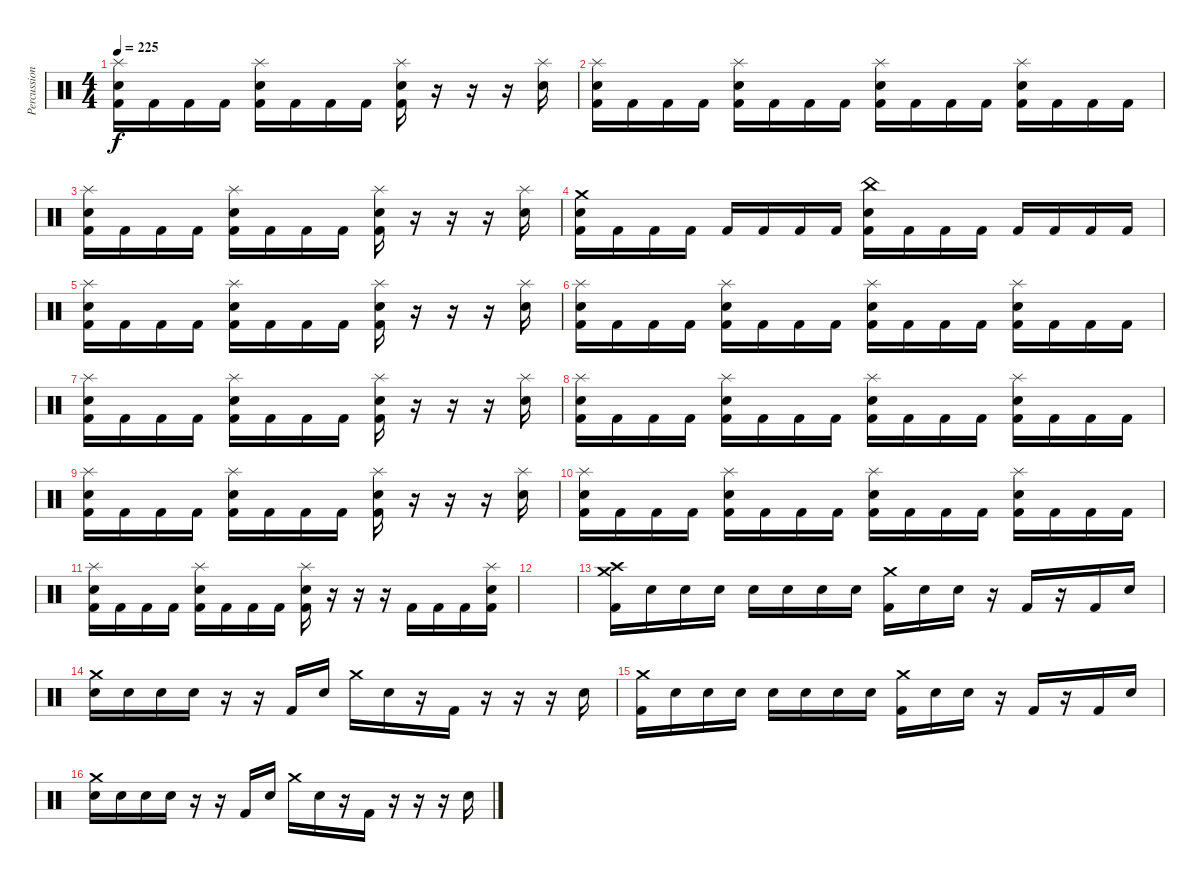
\track ("Percussion" "Percussion") {instrument percussion}
\staff {score}
\articulation defaults
\ts (4 4)
\tempo 225
\clef neutral
\ks c
("Splash (hit)" "Snare (hit) 2" "Kick (hit) 2").16{dy f} "Kick (hit) 2".16 "Kick (hit) 2".16 "Kick (hit) 2".16 ("Splash (hit)" "Snare (hit) 2" "Kick (hit) 2").16 "Kick (hit) 2".16 "Kick (hit) 2".16 "Kick (hit) 2".16 ("Splash (hit)" "Snare (hit) 2" "Kick (hit) 2").16 r.16 r.16 r.16 ("Splash (hit)" "Snare (hit) 2").16 |
("Splash (hit)" "Snare (hit) 2" "Kick (hit) 2").16 "Kick (hit) 2".16 "Kick (hit) 2".16 "Kick (hit) 2".16 ("Splash (hit)" "Snare (hit) 2" "Kick (hit) 2").16 "Kick (hit) 2".16 "Kick (hit) 2".16 "Kick (hit) 2".16 ("Splash (hit)" "Snare (hit) 2" "Kick (hit) 2").16 "Kick (hit) 2".16 "Kick (hit) 2".16 "Kick (hit) 2".16 ("Splash (hit)" "Snare (hit) 2" "Kick (hit) 2").16 "Kick (hit) 2".16 "Kick (hit) 2".16 "Kick (hit) 2".16 |
("Splash (hit)" "Snare (hit) 2" "Kick (hit) 2").16 "Kick (hit) 2".16 "Kick (hit) 2".16 "Kick (hit) 2".16 ("Splash (hit)" "Snare (hit) 2" "Kick (hit) 2").16 "Kick (hit) 2".16 "Kick (hit) 2".16 "Kick (hit) 2".16 ("Splash (hit)" "Snare (hit) 2" "Kick (hit) 2").16 r.16 r.16 r.16 ("Splash (hit)" "Snare (hit) 2").16 |
("Crash medium (hit)" "Snare (hit) 2" "Kick (hit) 2").16 "Kick (hit) 2".16 "Kick (hit) 2".16 "Kick (hit) 2".16 "Kick (hit) 2".16 "Kick (hit) 2".16 "Kick (hit) 2".16 "Kick (hit) 2".16 ("China (hit)" "Snare (hit) 2" "Kick (hit) 2").16 "Kick (hit) 2".16 "Kick (hit) 2".16 "Kick (hit) 2".16 "Kick (hit) 2".16 "Kick (hit) 2".16 "Kick (hit) 2".16 "Kick (hit) 2".16 |
("Splash (hit)" "Snare (hit) 2" "Kick (hit) 2").16 "Kick (hit) 2".16 "Kick (hit) 2".16 "Kick (hit) 2".16 ("Splash (hit)" "Snare (hit) 2" "Kick (hit) 2").16 "Kick (hit) 2".16 "Kick (hit) 2".16 "Kick (hit) 2".16 ("Splash (hit)" "Snare (hit) 2" "Kick (hit) 2").16 r.16 r.16 r.16 ("Splash (hit)" "Snare (hit) 2").16 |
("Splash (hit)" "Snare (hit) 2" "Kick (hit) 2").16 "Kick (hit) 2".16 "Kick (hit) 2".16 "Kick (hit) 2".16 ("Splash (hit)" "Snare (hit) 2" "Kick (hit) 2").16 "Kick (hit) 2".16 "Kick (hit) 2".16 "Kick (hit) 2".16 ("Splash (hit)" "Snare (hit) 2" "Kick (hit) 2").16 "Kick (hit) 2".16 "Kick (hit) 2".16 "Kick (hit) 2".16 ("Splash (hit)" "Snare (hit) 2" "Kick (hit) 2").16 "Kick (hit) 2".16 "Kick (hit) 2".16 "Kick (hit) 2".16 |
("Splash (hit)" "Snare (hit) 2" "Kick (hit) 2").16 "Kick (hit) 2".16 "Kick (hit) 2".16 "Kick (hit) 2".16 ("Splash (hit)" "Snare (hit) 2" "Kick (hit) 2").16 "Kick (hit) 2".16 "Kick (hit) 2".16 "Kick (hit) 2".16 ("Splash (hit)" "Snare (hit) 2" "Kick (hit) 2").16 r.16 r.16 r.16 ("Splash (hit)" "Snare (hit) 2").16 |
("Splash (hit)" "Snare (hit) 2" "Kick (hit) 2").16 "Kick (hit) 2".16 "Kick (hit) 2".16 "Kick (hit) 2".16 ("Splash (hit)" "Snare (hit) 2" "Kick (hit) 2").16 "Kick (hit) 2".16 "Kick (hit) 2".16 "Kick (hit) 2".16 ("Splash (hit)" "Snare (hit) 2" "Kick (hit) 2").16 "Kick (hit) 2".16 "Kick (hit) 2".16 "Kick (hit) 2".16 ("Splash (hit)" "Snare (hit) 2" "Kick (hit) 2").16 "Kick (hit) 2".16 "Kick (hit) 2".16 "Kick (hit) 2".16 |
("Splash (hit)" "Snare (hit) 2" "Kick (hit) 2").16 "Kick (hit) 2".16 "Kick (hit) 2".16 "Kick (hit) 2".16 ("Splash (hit)" "Snare (hit) 2" "Kick (hit) 2").16 "Kick (hit) 2".16 "Kick (hit) 2".16 "Kick (hit) 2".16 ("Splash (hit)" "Snare (hit) 2" "Kick (hit) 2").16 r.16 r.16 r.16 ("Splash (hit)" "Snare (hit) 2").16 |
("Splash (hit)" "Snare (hit) 2" "Kick (hit) 2").16 "Kick (hit) 2".16 "Kick (hit) 2".16 "Kick (hit) 2".16 ("Splash (hit)" "Snare (hit) 2" "Kick (hit) 2").16 "Kick (hit) 2".16 "Kick (hit) 2".16 "Kick (hit) 2".16 ("Splash (hit)" "Snare (hit) 2" "Kick (hit) 2").16 "Kick (hit) 2".16 "Kick (hit) 2".16 "Kick (hit) 2".16 ("Splash (hit)" "Snare (hit) 2" "Kick (hit) 2").16 "Kick (hit) 2".16 "Kick (hit) 2".16 "Kick (hit) 2".16 |
("Splash (hit)" "Snare (hit) 2" "Kick (hit) 2").16 "Kick (hit) 2".16 "Kick (hit) 2".16 "Kick (hit) 2".16 ("Splash (hit)" "Snare (hit) 2" "Kick (hit) 2").16 "Kick (hit) 2".16 "Kick (hit) 2".16 "Kick (hit) 2".16 ("Splash (hit)" "Snare (hit) 2" "Kick (hit) 2").16 r.16 r.16 r.16 "Kick (hit) 2".16 "Kick (hit) 2".16 "Kick (hit) 2".16 ("Splash (hit)" "Snare (hit) 2" "Kick (hit) 2").16 |
|
("Crash high (hit)" "Crash medium (hit)" "Kick (hit) 2").16 "Snare (hit)".16 "Snare (hit)".16 "Snare (hit)".16 "Snare (hit)".16 "Snare (hit)".16 "Snare (hit)".16 "Snare (hit)".16 ("Crash medium (hit)" "Kick (hit) 2").16 "Snare (hit)".16 "Snare (hit)".16 r.16 "Kick (hit) 2".16 r.16 "Kick (hit) 2".16 "Snare (hit)".16 |
("Crash medium (hit)" "Snare (hit) 2").16 "Snare (hit)".16 "Snare (hit)".16 "Snare (hit)".16 r.16 r.16 "Kick (hit) 2".16 "Snare (hit)".16 "Crash medium (hit)".16 "Snare (hit)".16 r.16 "Kick (hit) 2".16 r.16 r.16 r.16 "Snare (hit)".16 |
("Crash medium (hit)" "Kick (hit) 2").16 "Snare (hit)".16 "Snare (hit)".16 "Snare (hit)".16 "Snare (hit)".16 "Snare (hit)".16 "Snare (hit)".16 "Snare (hit)".16 ("Crash medium (hit)" "Kick (hit) 2").16 "Snare (hit)".16 "Snare (hit)".16 r.16 "Kick (hit) 2".16 r.16 "Kick (hit) 2".16 "Snare (hit)".16 |
("Crash medium (hit)" "Snare (hit) 2").16 "Snare (hit)".16 "Snare (hit)".16 "Snare (hit)".16 r.16 r.16 "Kick (hit) 2".16 "Snare (hit)".16 "Crash medium (hit)".16 "Snare (hit)".16 r.16 "Kick (hit) 2".16 r.16 r.16 r.16 "Snare (hit)".16
